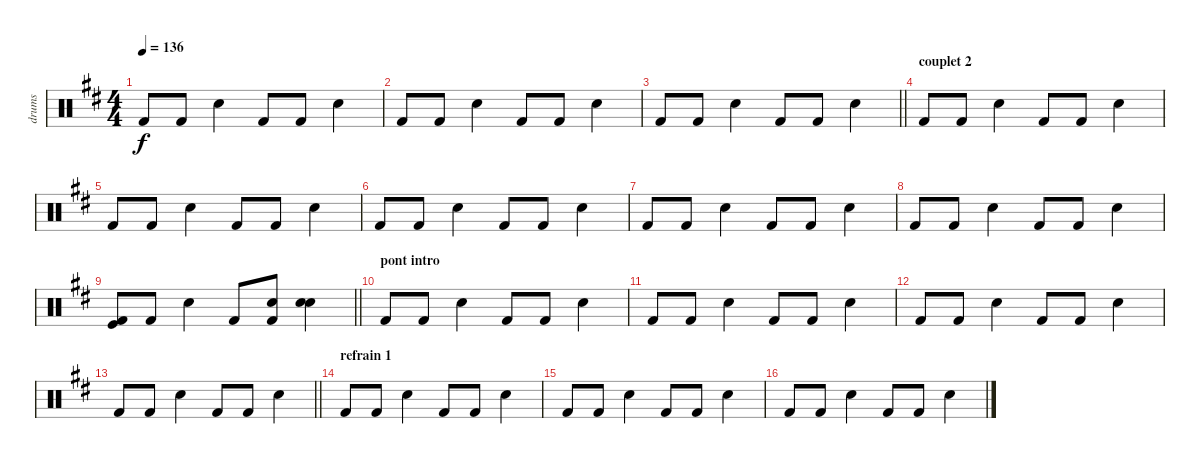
\track ("drums" "drums") {instrument percussion}
\staff {score}
\articulation defaults
\ts (4 4)
\tempo 136
\clef neutral
\ks d "Kick (hit) 2".8{dy f} "Kick (hit) 2".8 "Electric Snare (hit)".4 "Kick (hit) 2".8 "Kick (hit) 2".8 "Electric Snare (hit)".4
|
"Kick (hit) 2".8 "Kick (hit) 2".8 "Electric Snare (hit)".4 "Kick (hit) 2".8 "Kick (hit) 2".8 "Electric Snare (hit)".4 |
\barLineRight lightlight "Kick (hit) 2".8 "Kick (hit) 2".8 "Electric Snare (hit)".4 "Kick (hit) 2".8 "Kick (hit) 2".8 "Electric Snare (hit)".4
|
\section ("" "couplet 2")
"Kick (hit) 2".8 "Kick (hit) 2".8 "Electric Snare (hit)".4 "Kick (hit) 2".8 "Kick (hit) 2".8 "Electric Snare (hit)".4 |
"Kick (hit) 2".8 "Kick (hit) 2".8 "Electric Snare (hit)".4 "Kick (hit) 2".8 "Kick (hit) 2".8 "Electric Snare (hit)".4 |
"Kick (hit) 2".8 "Kick (hit) 2".8 "Electric Snare (hit)".4 "Kick (hit) 2".8 "Kick (hit) 2".8 "Electric Snare (hit)".4 |
"Kick (hit) 2".8 "Kick (hit) 2".8 "Electric Snare (hit)".4 "Kick (hit) 2".8 "Kick (hit) 2".8 "Electric Snare (hit)".4 |
"Kick (hit) 2".8 "Kick (hit) 2".8 "Electric Snare (hit)".4 "Kick (hit) 2".8 "Kick (hit) 2".8 "Electric Snare (hit)".4 |
\barLineRight lightlight
("Kick (hit)" "Kick (hit) 2").8 "Kick (hit) 2".8 "Electric Snare (hit)".4 "Kick (hit) 2".8 ("Hand Clap (hit)" "Kick (hit) 2").8 ("Hand Clap (hit)" "Electric Snare (hit)").4 |
\section ("" "pont intro")
"Kick (hit) 2".8 "Kick (hit) 2".8 "Electric Snare (hit)".4 "Kick (hit) 2".8 "Kick (hit) 2".8 "Electric Snare (hit)".4 |
"Kick (hit) 2".8 "Kick (hit) 2".8 "Electric Snare (hit)".4 "Kick (hit) 2".8 "Kick (hit) 2".8 "Electric Snare (hit)".4 |
"Kick (hit) 2".8 "Kick (hit) 2".8 "Electric Snare (hit)".4 "Kick (hit) 2".8 "Kick (hit) 2".8 "Electric Snare (hit)".4 |
\barLineRight lightlight "Kick (hit) 2".8 "Kick (hit) 2".8 "Electric Snare (hit)".4 "Kick (hit) 2".8 "Kick (hit) 2".8 "Electric Snare (hit)".4
|
\section ("" "refrain 1")
"Kick (hit) 2".8 "Kick (hit) 2".8 "Electric Snare (hit)".4 "Kick (hit) 2".8 "Kick (hit) 2".8 "Electric Snare (hit)".4 |
"Kick (hit) 2".8 "Kick (hit) 2".8 "Electric Snare (hit)".4 "Kick (hit) 2".8 "Kick (hit) 2".8 "Electric Snare (hit)".4 |
"Kick (hit) 2".8 "Kick (hit) 2".8 "Electric Snare (hit)".4 "Kick (hit) 2".8 "Kick (hit) 2".8 "Electric Snare (hit)".4
